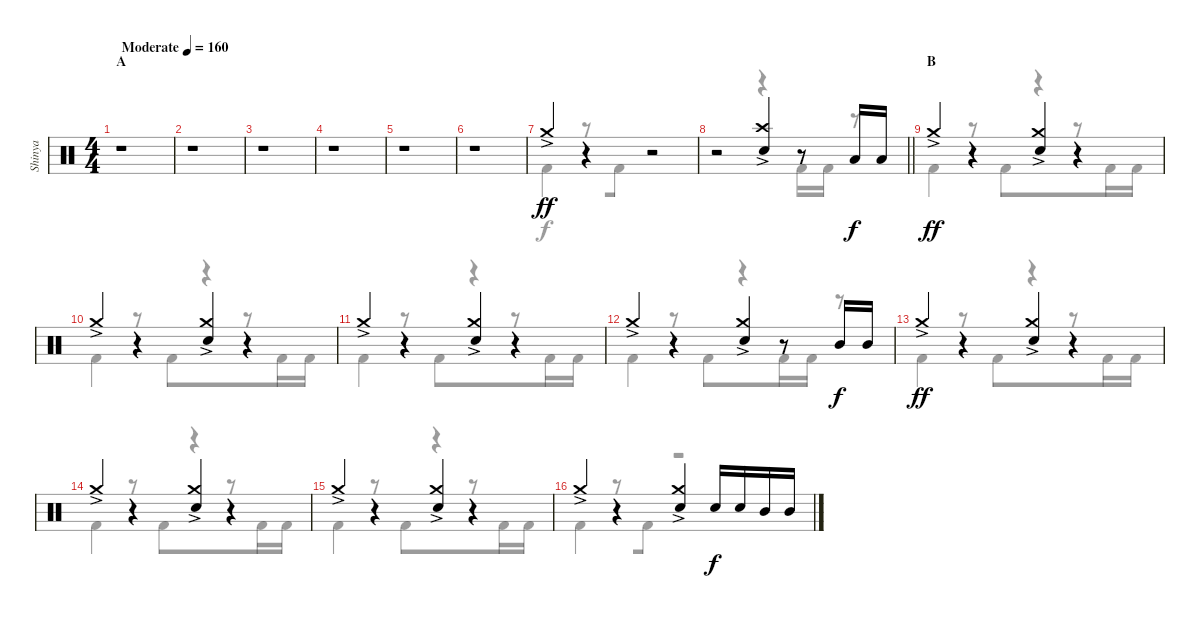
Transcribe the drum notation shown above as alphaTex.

\track ("Shinya" "Shinya") {instrument percussion}
\staff {score}
\articulation defaults
\voice
\ts (4 4)
\section ("" "A")
\tempo (160 "Moderate")
\clef neutral
\ks c
r.1{dy ff} |
r.1 |
r.1 |
r.1 |
r.1 |
r.1 |
"Crash medium (hit)"{ac}.4{beam merge} r.4{beam merge} r.2 |
\barLineRight lightlight
r.2{beam merge} ("Crash high (hit)"{ac} "Electric Snare (hit)").4{beam merge} r.8{beam merge} "Low Tom (hit)".16{dy f beam merge} "Low Tom (hit)".16 |
\section ("" "B")
"Crash medium (hit)"{ac}.4{dy ff beam merge} r.4{beam merge} ("Crash medium (hit)"{ac} "Electric Snare (hit)").4{beam merge} r.4 |
"Crash medium (hit)"{ac}.4{beam merge} r.4{beam merge} ("Crash medium (hit)"{ac} "Electric Snare (hit)").4{beam merge} r.4 |
"Crash medium (hit)"{ac}.4{beam merge} r.4{beam merge} ("Crash medium (hit)"{ac} "Electric Snare (hit)").4{beam merge} r.4 |
"Crash medium (hit)"{ac}.4{beam merge} r.4{beam merge} ("Crash medium (hit)"{ac} "Electric Snare (hit)").4{beam merge} r.8 "Mid Tom (hit)".16{dy f} "Mid Tom (hit)".16 |
"Crash medium (hit)"{ac}.4{dy ff beam merge} r.4{beam merge} ("Crash medium (hit)"{ac} "Electric Snare (hit)").4{beam merge} r.4 |
"Crash medium (hit)"{ac}.4{beam merge} r.4{beam merge} ("Crash medium (hit)"{ac} "Electric Snare (hit)").4{beam merge} r.4 |
"Crash medium (hit)"{ac}.4{beam merge} r.4{beam merge} ("Crash medium (hit)"{ac} "Electric Snare (hit)").4{beam merge} r.4 |
"Crash medium (hit)"{ac}.4{beam merge} r.4{beam merge} ("Crash medium (hit)"{ac} "Electric Snare (hit)").4{beam merge} "Electric Snare (hit)".16{dy f} "Electric Snare (hit)".16{beam merge} "Mid Tom (hit)".16 "Mid Tom (hit)".16
\voice
\clef neutral
\ottava regular
\simile none
\ks c
r.1{dy f} |
r.1 |
r.1 |
r.1 |
r.1 |
r.1 |
"Kick (hit) 2".4{beam merge} r.8{beam merge} "Kick (hit) 2".8{beam merge} r.2 |
\barLineRight lightlight
r.2{beam merge} r.4{beam merge} "Kick (hit) 2".16{beam merge} "Kick (hit) 2".16{beam merge} r.8 |
"Kick (hit) 2".4{beam merge} r.8{beam merge} "Kick (hit) 2".8{beam merge} r.4{beam merge} r.8 "Kick (hit) 2".16{beam merge} "Kick (hit) 2".16 |
"Kick (hit) 2".4{beam merge} r.8{beam merge} "Kick (hit) 2".8{beam merge} r.4{beam merge} r.8 "Kick (hit) 2".16{beam merge} "Kick (hit) 2".16 |
"Kick (hit) 2".4{beam merge} r.8{beam merge} "Kick (hit) 2".8{beam merge} r.4{beam merge} r.8 "Kick (hit) 2".16{beam merge} "Kick (hit) 2".16 |
"Kick (hit) 2".4{beam merge} r.8{beam merge} "Kick (hit) 2".8{beam merge} r.4 "Kick (hit) 2".16{beam merge} "Kick (hit) 2".16{beam merge} r.8 |
"Kick (hit) 2".4{beam merge} r.8{beam merge} "Kick (hit) 2".8{beam merge} r.4{beam merge} r.8 "Kick (hit) 2".16{beam merge} "Kick (hit) 2".16 |
"Kick (hit) 2".4{beam merge} r.8{beam merge} "Kick (hit) 2".8{beam merge} r.4{beam merge} r.8 "Kick (hit) 2".16{beam merge} "Kick (hit) 2".16 |
"Kick (hit) 2".4{beam merge} r.8{beam merge} "Kick (hit) 2".8{beam merge} r.4{beam merge} r.8 "Kick (hit) 2".16{beam merge} "Kick (hit) 2".16 |
"Kick (hit) 2".4{beam merge} r.8{beam merge} "Kick (hit) 2".8{beam merge} r.2
